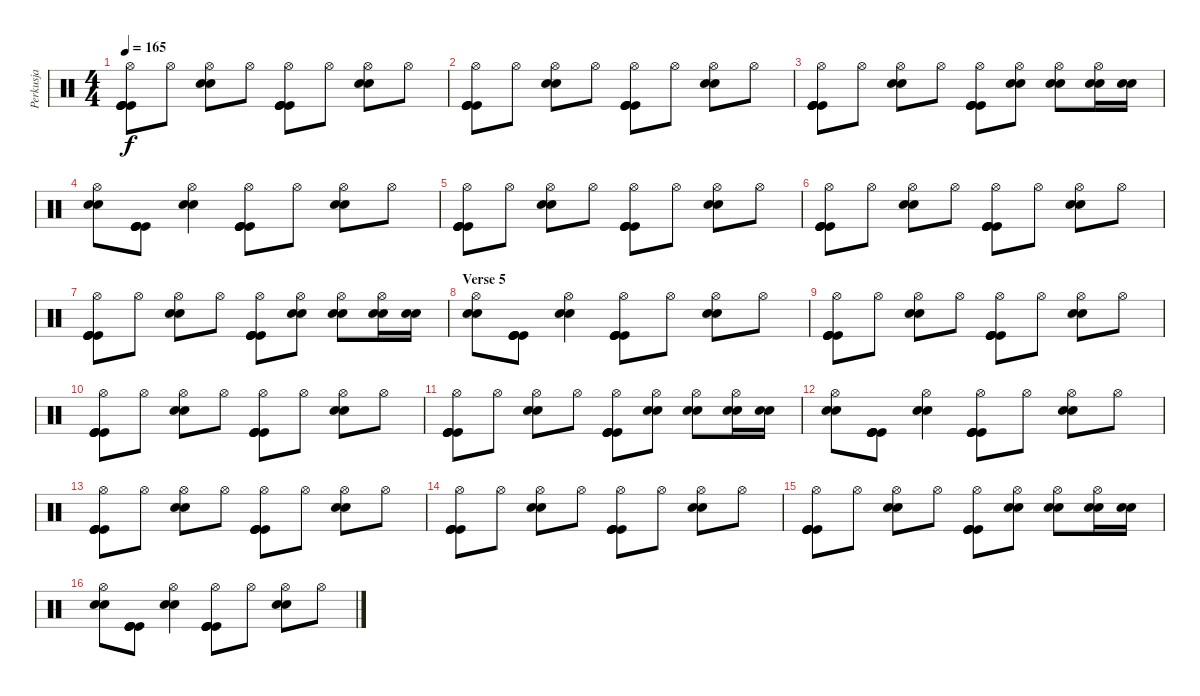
\track ("Perkusja" "Perkusja") {instrument percussion}
\staff {score}
\articulation defaults
\ts (4 4)
\tempo 165
\clef neutral
\ks c
("Hi-Hat (open)" "Kick (hit)" "Kick (hit)" "Kick (hit)" "Kick (hit)").8{dy f} "Hi-Hat (open)".8 ("Hi-Hat (open)" "Snare (hit) 2" "Snare (hit) 2").8 "Hi-Hat (open)".8 ("Hi-Hat (open)" "Kick (hit)" "Kick (hit)" "Kick (hit)" "Kick (hit)").8 "Hi-Hat (open)".8 ("Hi-Hat (open)" "Snare (hit) 2" "Snare (hit) 2").8 "Hi-Hat (open)".8 |
("Hi-Hat (open)" "Kick (hit)" "Kick (hit)" "Kick (hit)" "Kick (hit)").8 "Hi-Hat (open)".8 ("Hi-Hat (open)" "Snare (hit) 2" "Snare (hit) 2").8 "Hi-Hat (open)".8 ("Hi-Hat (open)" "Kick (hit)" "Kick (hit)" "Kick (hit)" "Kick (hit)").8 "Hi-Hat (open)".8 ("Hi-Hat (open)" "Snare (hit) 2" "Snare (hit) 2").8 "Hi-Hat (open)".8 |
("Hi-Hat (open)" "Kick (hit)" "Kick (hit)" "Kick (hit)" "Kick (hit)").8 "Hi-Hat (open)".8 ("Hi-Hat (open)" "Snare (hit) 2" "Snare (hit) 2").8 "Hi-Hat (open)".8 ("Hi-Hat (open)" "Kick (hit)" "Kick (hit)" "Kick (hit)" "Kick (hit)").8 ("Hi-Hat (open)" "Snare (hit) 2" "Snare (hit) 2").8 ("Hi-Hat (open)" "Snare (hit) 2" "Snare (hit) 2").8 ("Hi-Hat (open)" "Snare (hit) 2" "Snare (hit) 2").16 ("Snare (hit) 2" "Snare (hit) 2").16 |
("Hi-Hat (open)" "Snare (hit) 2" "Snare (hit) 2").8 ("Kick (hit)" "Kick (hit)" "Kick (hit)" "Kick (hit)").8 ("Hi-Hat (open)" "Snare (hit) 2" "Snare (hit) 2").4 ("Hi-Hat (open)" "Kick (hit)" "Kick (hit)" "Kick (hit)" "Kick (hit)").8 "Hi-Hat (open)".8 ("Hi-Hat (open)" "Snare (hit) 2" "Snare (hit) 2").8 "Hi-Hat (open)".8 |
("Hi-Hat (open)" "Kick (hit)" "Kick (hit)" "Kick (hit)" "Kick (hit)").8 "Hi-Hat (open)".8 ("Hi-Hat (open)" "Snare (hit) 2" "Snare (hit) 2").8 "Hi-Hat (open)".8 ("Hi-Hat (open)" "Kick (hit)" "Kick (hit)" "Kick (hit)" "Kick (hit)").8 "Hi-Hat (open)".8 ("Hi-Hat (open)" "Snare (hit) 2" "Snare (hit) 2").8 "Hi-Hat (open)".8 |
("Hi-Hat (open)" "Kick (hit)" "Kick (hit)" "Kick (hit)" "Kick (hit)").8 "Hi-Hat (open)".8 ("Hi-Hat (open)" "Snare (hit) 2" "Snare (hit) 2").8 "Hi-Hat (open)".8 ("Hi-Hat (open)" "Kick (hit)" "Kick (hit)" "Kick (hit)" "Kick (hit)").8 "Hi-Hat (open)".8 ("Hi-Hat (open)" "Snare (hit) 2" "Snare (hit) 2").8 "Hi-Hat (open)".8 |
("Hi-Hat (open)" "Kick (hit)" "Kick (hit)" "Kick (hit)" "Kick (hit)").8 "Hi-Hat (open)".8 ("Hi-Hat (open)" "Snare (hit) 2" "Snare (hit) 2").8 "Hi-Hat (open)".8 ("Hi-Hat (open)" "Kick (hit)" "Kick (hit)" "Kick (hit)" "Kick (hit)").8 ("Hi-Hat (open)" "Snare (hit) 2" "Snare (hit) 2").8 ("Hi-Hat (open)" "Snare (hit) 2" "Snare (hit) 2").8 ("Hi-Hat (open)" "Snare (hit) 2" "Snare (hit) 2").16 ("Snare (hit) 2" "Snare (hit) 2").16 |
\section ("" "Verse 5")
("Hi-Hat (open)" "Snare (hit) 2" "Snare (hit) 2").8 ("Kick (hit)" "Kick (hit)" "Kick (hit)" "Kick (hit)").8 ("Hi-Hat (open)" "Snare (hit) 2" "Snare (hit) 2").4 ("Hi-Hat (open)" "Kick (hit)" "Kick (hit)" "Kick (hit)" "Kick (hit)").8 "Hi-Hat (open)".8 ("Hi-Hat (open)" "Snare (hit) 2" "Snare (hit) 2").8 "Hi-Hat (open)".8 |
("Hi-Hat (open)" "Kick (hit)" "Kick (hit)" "Kick (hit)" "Kick (hit)").8 "Hi-Hat (open)".8 ("Hi-Hat (open)" "Snare (hit) 2" "Snare (hit) 2").8 "Hi-Hat (open)".8 ("Hi-Hat (open)" "Kick (hit)" "Kick (hit)" "Kick (hit)" "Kick (hit)").8 "Hi-Hat (open)".8 ("Hi-Hat (open)" "Snare (hit) 2" "Snare (hit) 2").8 "Hi-Hat (open)".8 |
("Hi-Hat (open)" "Kick (hit)" "Kick (hit)" "Kick (hit)" "Kick (hit)").8 "Hi-Hat (open)".8 ("Hi-Hat (open)" "Snare (hit) 2" "Snare (hit) 2").8 "Hi-Hat (open)".8 ("Hi-Hat (open)" "Kick (hit)" "Kick (hit)" "Kick (hit)" "Kick (hit)").8 "Hi-Hat (open)".8 ("Hi-Hat (open)" "Snare (hit) 2" "Snare (hit) 2").8 "Hi-Hat (open)".8 |
("Hi-Hat (open)" "Kick (hit)" "Kick (hit)" "Kick (hit)" "Kick (hit)").8 "Hi-Hat (open)".8 ("Hi-Hat (open)" "Snare (hit) 2" "Snare (hit) 2").8 "Hi-Hat (open)".8 ("Hi-Hat (open)" "Kick (hit)" "Kick (hit)" "Kick (hit)" "Kick (hit)").8 ("Hi-Hat (open)" "Snare (hit) 2" "Snare (hit) 2").8 ("Hi-Hat (open)" "Snare (hit) 2" "Snare (hit) 2").8 ("Hi-Hat (open)" "Snare (hit) 2" "Snare (hit) 2").16 ("Snare (hit) 2" "Snare (hit) 2").16 |
("Hi-Hat (open)" "Snare (hit) 2" "Snare (hit) 2").8 ("Kick (hit)" "Kick (hit)" "Kick (hit)" "Kick (hit)").8 ("Hi-Hat (open)" "Snare (hit) 2" "Snare (hit) 2").4 ("Hi-Hat (open)" "Kick (hit)" "Kick (hit)" "Kick (hit)" "Kick (hit)").8 "Hi-Hat (open)".8 ("Hi-Hat (open)" "Snare (hit) 2" "Snare (hit) 2").8 "Hi-Hat (open)".8 |
("Hi-Hat (open)" "Kick (hit)" "Kick (hit)" "Kick (hit)" "Kick (hit)").8 "Hi-Hat (open)".8 ("Hi-Hat (open)" "Snare (hit) 2" "Snare (hit) 2").8 "Hi-Hat (open)".8 ("Hi-Hat (open)" "Kick (hit)" "Kick (hit)" "Kick (hit)" "Kick (hit)").8 "Hi-Hat (open)".8 ("Hi-Hat (open)" "Snare (hit) 2" "Snare (hit) 2").8 "Hi-Hat (open)".8 |
("Hi-Hat (open)" "Kick (hit)" "Kick (hit)" "Kick (hit)" "Kick (hit)").8 "Hi-Hat (open)".8 ("Hi-Hat (open)" "Snare (hit) 2" "Snare (hit) 2").8 "Hi-Hat (open)".8 ("Hi-Hat (open)" "Kick (hit)" "Kick (hit)" "Kick (hit)" "Kick (hit)").8 "Hi-Hat (open)".8 ("Hi-Hat (open)" "Snare (hit) 2" "Snare (hit) 2").8 "Hi-Hat (open)".8 |
("Hi-Hat (open)" "Kick (hit)" "Kick (hit)" "Kick (hit)" "Kick (hit)").8 "Hi-Hat (open)".8 ("Hi-Hat (open)" "Snare (hit) 2" "Snare (hit) 2").8 "Hi-Hat (open)".8 ("Hi-Hat (open)" "Kick (hit)" "Kick (hit)" "Kick (hit)" "Kick (hit)").8 ("Hi-Hat (open)" "Snare (hit) 2" "Snare (hit) 2").8 ("Hi-Hat (open)" "Snare (hit) 2" "Snare (hit) 2").8 ("Hi-Hat (open)" "Snare (hit) 2" "Snare (hit) 2").16 ("Snare (hit) 2" "Snare (hit) 2").16 |
("Hi-Hat (open)" "Snare (hit) 2" "Snare (hit) 2").8 ("Kick (hit)" "Kick (hit)" "Kick (hit)" "Kick (hit)").8 ("Hi-Hat (open)" "Snare (hit) 2" "Snare (hit) 2").4 ("Hi-Hat (open)" "Kick (hit)" "Kick (hit)" "Kick (hit)" "Kick (hit)").8 "Hi-Hat (open)".8 ("Hi-Hat (open)" "Snare (hit) 2" "Snare (hit) 2").8 "Hi-Hat (open)".8
